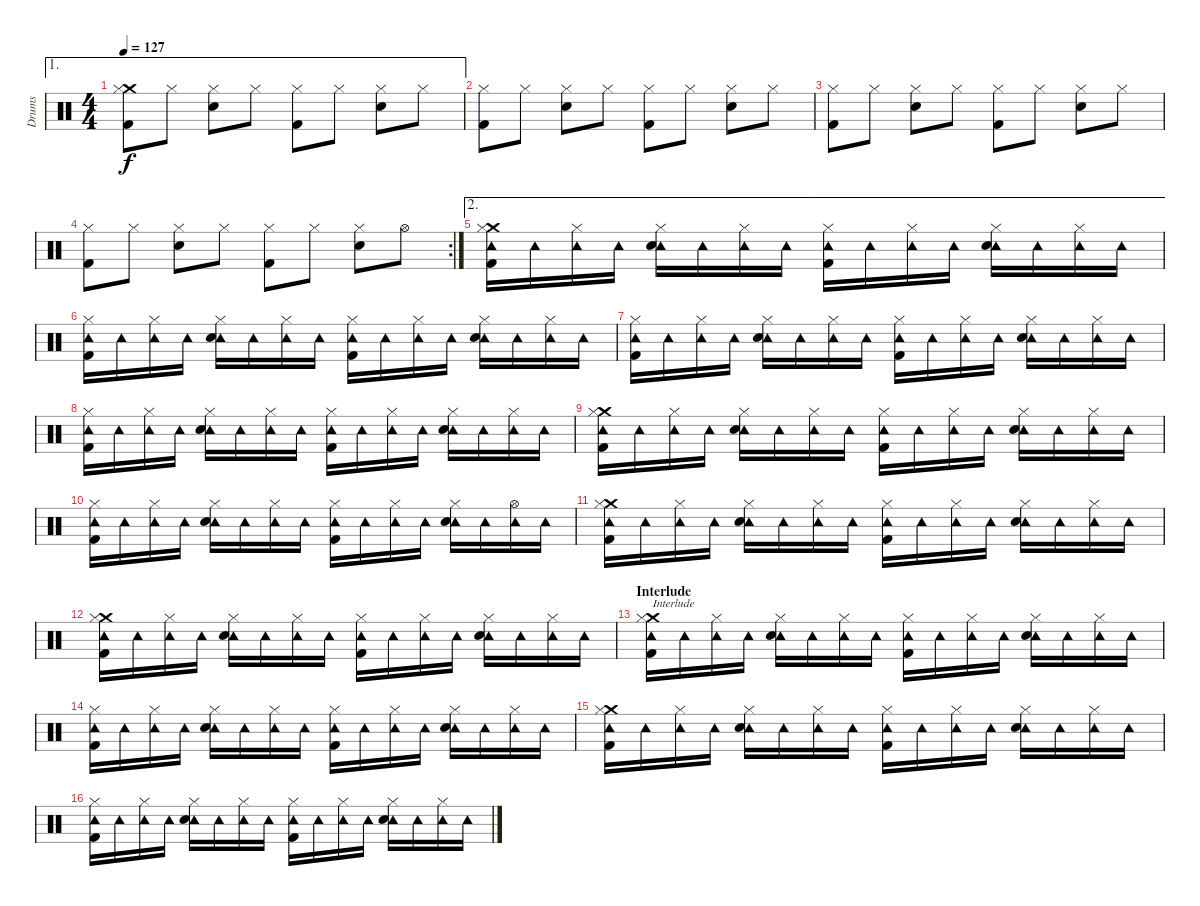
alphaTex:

\track ("Drums" "Drums") {instrument percussion}
\staff {score}
\articulation defaults
\ae 1
\ts (4 4)
\tempo 127
\clef neutral
\ks c
("Crash medium (hit)" "Hi-Hat (closed)" "Kick (hit) 2").8{dy f} "Hi-Hat (closed)".8 ("Hi-Hat (closed)" "Snare (hit) 2").8 "Hi-Hat (closed)".8 ("Hi-Hat (closed)" "Kick (hit) 2").8 "Hi-Hat (closed)".8 ("Hi-Hat (closed)" "Snare (hit) 2").8 "Hi-Hat (closed)".8 |
("Hi-Hat (closed)" "Kick (hit) 2").8 "Hi-Hat (closed)".8 ("Hi-Hat (closed)" "Snare (hit) 2").8 "Hi-Hat (closed)".8 ("Hi-Hat (closed)" "Kick (hit) 2").8 "Hi-Hat (closed)".8 ("Hi-Hat (closed)" "Snare (hit) 2").8 "Hi-Hat (closed)".8 |
("Hi-Hat (closed)" "Kick (hit) 2").8 "Hi-Hat (closed)".8 ("Hi-Hat (closed)" "Snare (hit) 2").8 "Hi-Hat (closed)".8 ("Hi-Hat (closed)" "Kick (hit) 2").8 "Hi-Hat (closed)".8 ("Hi-Hat (closed)" "Snare (hit) 2").8 "Hi-Hat (closed)".8 |
\rc 2
("Hi-Hat (closed)" "Kick (hit) 2").8 "Hi-Hat (closed)".8 ("Hi-Hat (closed)" "Snare (hit) 2").8 "Hi-Hat (closed)".8 ("Hi-Hat (closed)" "Kick (hit) 2").8 "Hi-Hat (closed)".8 ("Hi-Hat (closed)" "Snare (hit) 2").8 "Hi-Hat (open)".8 |
\ae 2
("Crash medium (hit)" "Tambourine (hit)" "Hi-Hat (closed)" "Kick (hit) 2").16 "Tambourine (hit)".16 ("Tambourine (hit)" "Hi-Hat (closed)").16 "Tambourine (hit)".16 ("Tambourine (hit)" "Hi-Hat (closed)" "Snare (hit) 2").16 "Tambourine (hit)".16 ("Tambourine (hit)" "Hi-Hat (closed)").16 "Tambourine (hit)".16 ("Tambourine (hit)" "Hi-Hat (closed)" "Kick (hit) 2").16 "Tambourine (hit)".16 ("Tambourine (hit)" "Hi-Hat (closed)").16 "Tambourine (hit)".16 ("Tambourine (hit)" "Hi-Hat (closed)" "Snare (hit) 2").16 "Tambourine (hit)".16 ("Tambourine (hit)" "Hi-Hat (closed)").16 "Tambourine (hit)".16 |
("Tambourine (hit)" "Hi-Hat (closed)" "Kick (hit) 2").16 "Tambourine (hit)".16 ("Tambourine (hit)" "Hi-Hat (closed)").16 "Tambourine (hit)".16 ("Tambourine (hit)" "Hi-Hat (closed)" "Snare (hit) 2").16 "Tambourine (hit)".16 ("Tambourine (hit)" "Hi-Hat (closed)").16 "Tambourine (hit)".16 ("Tambourine (hit)" "Hi-Hat (closed)" "Kick (hit) 2").16 "Tambourine (hit)".16 ("Tambourine (hit)" "Hi-Hat (closed)").16 "Tambourine (hit)".16 ("Tambourine (hit)" "Hi-Hat (closed)" "Snare (hit) 2").16 "Tambourine (hit)".16 ("Tambourine (hit)" "Hi-Hat (closed)").16 "Tambourine (hit)".16 |
("Tambourine (hit)" "Hi-Hat (closed)" "Kick (hit) 2").16 "Tambourine (hit)".16 ("Tambourine (hit)" "Hi-Hat (closed)").16 "Tambourine (hit)".16 ("Tambourine (hit)" "Hi-Hat (closed)" "Snare (hit) 2").16 "Tambourine (hit)".16 ("Tambourine (hit)" "Hi-Hat (closed)").16 "Tambourine (hit)".16 ("Tambourine (hit)" "Hi-Hat (closed)" "Kick (hit) 2").16 "Tambourine (hit)".16 ("Tambourine (hit)" "Hi-Hat (closed)").16 "Tambourine (hit)".16 ("Tambourine (hit)" "Hi-Hat (closed)" "Snare (hit) 2").16 "Tambourine (hit)".16 ("Tambourine (hit)" "Hi-Hat (closed)").16 "Tambourine (hit)".16 |
("Tambourine (hit)" "Hi-Hat (closed)" "Kick (hit) 2").16 "Tambourine (hit)".16 ("Tambourine (hit)" "Hi-Hat (closed)").16 "Tambourine (hit)".16 ("Tambourine (hit)" "Hi-Hat (closed)" "Snare (hit) 2").16 "Tambourine (hit)".16 ("Tambourine (hit)" "Hi-Hat (closed)").16 "Tambourine (hit)".16 ("Tambourine (hit)" "Hi-Hat (closed)" "Kick (hit) 2").16 "Tambourine (hit)".16 ("Tambourine (hit)" "Hi-Hat (closed)").16 "Tambourine (hit)".16 ("Tambourine (hit)" "Hi-Hat (closed)" "Snare (hit) 2").16 "Tambourine (hit)".16 ("Tambourine (hit)" "Hi-Hat (closed)").16 "Tambourine (hit)".16 |
("Crash medium (hit)" "Tambourine (hit)" "Hi-Hat (closed)" "Kick (hit) 2").16 "Tambourine (hit)".16 ("Tambourine (hit)" "Hi-Hat (closed)").16 "Tambourine (hit)".16 ("Tambourine (hit)" "Hi-Hat (closed)" "Snare (hit) 2").16 "Tambourine (hit)".16 ("Tambourine (hit)" "Hi-Hat (closed)").16 "Tambourine (hit)".16 ("Tambourine (hit)" "Hi-Hat (closed)" "Kick (hit) 2").16 "Tambourine (hit)".16 ("Tambourine (hit)" "Hi-Hat (closed)").16 "Tambourine (hit)".16 ("Tambourine (hit)" "Hi-Hat (closed)" "Snare (hit) 2").16 "Tambourine (hit)".16 ("Tambourine (hit)" "Hi-Hat (closed)").16 "Tambourine (hit)".16 |
("Tambourine (hit)" "Hi-Hat (closed)" "Kick (hit) 2").16 "Tambourine (hit)".16 ("Tambourine (hit)" "Hi-Hat (closed)").16 "Tambourine (hit)".16 ("Tambourine (hit)" "Hi-Hat (closed)" "Snare (hit) 2").16 "Tambourine (hit)".16 ("Tambourine (hit)" "Hi-Hat (closed)").16 "Tambourine (hit)".16 ("Tambourine (hit)" "Hi-Hat (closed)" "Kick (hit) 2").16 "Tambourine (hit)".16 ("Tambourine (hit)" "Hi-Hat (closed)").16 "Tambourine (hit)".16 ("Tambourine (hit)" "Hi-Hat (closed)" "Snare (hit) 2").16 "Tambourine (hit)".16 ("Tambourine (hit)" "Hi-Hat (open)").16 "Tambourine (hit)".16 |
("Crash medium (hit)" "Tambourine (hit)" "Hi-Hat (closed)" "Kick (hit) 2").16 "Tambourine (hit)".16 ("Tambourine (hit)" "Hi-Hat (closed)").16 "Tambourine (hit)".16 ("Tambourine (hit)" "Hi-Hat (closed)" "Snare (hit) 2").16 "Tambourine (hit)".16 ("Tambourine (hit)" "Hi-Hat (closed)").16 "Tambourine (hit)".16 ("Tambourine (hit)" "Hi-Hat (closed)" "Kick (hit) 2").16 "Tambourine (hit)".16 ("Tambourine (hit)" "Hi-Hat (closed)").16 "Tambourine (hit)".16 ("Tambourine (hit)" "Hi-Hat (closed)" "Snare (hit) 2").16 "Tambourine (hit)".16 ("Tambourine (hit)" "Hi-Hat (closed)").16 "Tambourine (hit)".16 |
("Crash medium (hit)" "Tambourine (hit)" "Hi-Hat (closed)" "Kick (hit) 2").16 "Tambourine (hit)".16 ("Tambourine (hit)" "Hi-Hat (closed)").16 "Tambourine (hit)".16 ("Tambourine (hit)" "Hi-Hat (closed)" "Snare (hit) 2").16 "Tambourine (hit)".16 ("Tambourine (hit)" "Hi-Hat (closed)").16 "Tambourine (hit)".16 ("Tambourine (hit)" "Hi-Hat (closed)" "Kick (hit) 2").16 "Tambourine (hit)".16 ("Tambourine (hit)" "Hi-Hat (closed)").16 "Tambourine (hit)".16 ("Tambourine (hit)" "Hi-Hat (closed)" "Snare (hit) 2").16 "Tambourine (hit)".16 ("Tambourine (hit)" "Hi-Hat (closed)").16 "Tambourine (hit)".16 |
\section ("" "Interlude")
("Crash medium (hit)" "Tambourine (hit)" "Hi-Hat (closed)" "Kick (hit) 2").16{txt "Interlude"} "Tambourine (hit)".16 ("Tambourine (hit)" "Hi-Hat (closed)").16 "Tambourine (hit)".16 ("Tambourine (hit)" "Hi-Hat (closed)" "Snare (hit) 2").16 "Tambourine (hit)".16 ("Tambourine (hit)" "Hi-Hat (closed)").16 "Tambourine (hit)".16 ("Tambourine (hit)" "Hi-Hat (closed)" "Kick (hit) 2").16 "Tambourine (hit)".16 ("Tambourine (hit)" "Hi-Hat (closed)").16 "Tambourine (hit)".16 ("Tambourine (hit)" "Hi-Hat (closed)" "Snare (hit) 2").16 "Tambourine (hit)".16 ("Tambourine (hit)" "Hi-Hat (closed)").16 "Tambourine (hit)".16 |
("Tambourine (hit)" "Hi-Hat (closed)" "Kick (hit) 2").16 "Tambourine (hit)".16 ("Tambourine (hit)" "Hi-Hat (closed)").16 "Tambourine (hit)".16 ("Tambourine (hit)" "Hi-Hat (closed)" "Snare (hit) 2").16 "Tambourine (hit)".16 ("Tambourine (hit)" "Hi-Hat (closed)").16 "Tambourine (hit)".16 ("Tambourine (hit)" "Hi-Hat (closed)" "Kick (hit) 2").16 "Tambourine (hit)".16 ("Tambourine (hit)" "Hi-Hat (closed)").16 "Tambourine (hit)".16 ("Tambourine (hit)" "Hi-Hat (closed)" "Snare (hit) 2").16 "Tambourine (hit)".16 ("Tambourine (hit)" "Hi-Hat (closed)").16 "Tambourine (hit)".16 |
("Crash medium (hit)" "Tambourine (hit)" "Hi-Hat (closed)" "Kick (hit) 2").16 "Tambourine (hit)".16 ("Tambourine (hit)" "Hi-Hat (closed)").16 "Tambourine (hit)".16 ("Tambourine (hit)" "Hi-Hat (closed)" "Snare (hit) 2").16 "Tambourine (hit)".16 ("Tambourine (hit)" "Hi-Hat (closed)").16 "Tambourine (hit)".16 ("Tambourine (hit)" "Hi-Hat (closed)" "Kick (hit) 2").16 "Tambourine (hit)".16 ("Tambourine (hit)" "Hi-Hat (closed)").16 "Tambourine (hit)".16 ("Tambourine (hit)" "Hi-Hat (closed)" "Snare (hit) 2").16 "Tambourine (hit)".16 ("Tambourine (hit)" "Hi-Hat (closed)").16 "Tambourine (hit)".16 |
("Tambourine (hit)" "Hi-Hat (closed)" "Kick (hit) 2").16 "Tambourine (hit)".16 ("Tambourine (hit)" "Hi-Hat (closed)").16 "Tambourine (hit)".16 ("Tambourine (hit)" "Hi-Hat (closed)" "Snare (hit) 2").16 "Tambourine (hit)".16 ("Tambourine (hit)" "Hi-Hat (closed)").16 "Tambourine (hit)".16 ("Tambourine (hit)" "Hi-Hat (closed)" "Kick (hit) 2").16 "Tambourine (hit)".16 ("Tambourine (hit)" "Hi-Hat (closed)").16 "Tambourine (hit)".16 ("Tambourine (hit)" "Hi-Hat (closed)" "Snare (hit) 2").16 "Tambourine (hit)".16 ("Tambourine (hit)" "Hi-Hat (closed)").16 "Tambourine (hit)".16
